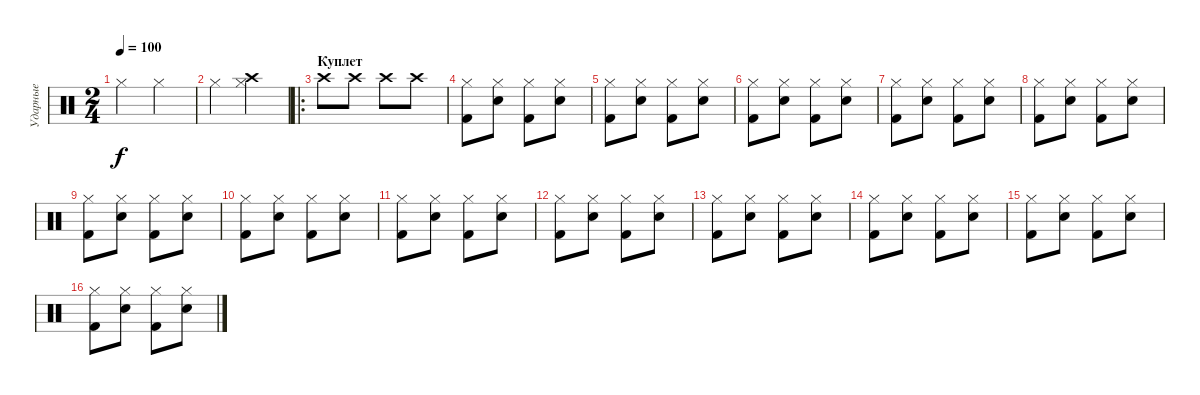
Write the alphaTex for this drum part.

\track ("Ударные" "Ударные") {instrument percussion}
\staff {score}
\articulation defaults
\ts (2 4)
\tempo 100
\clef neutral
\ks c "Hi-Hat (closed)".4{dy f} "Hi-Hat (closed)".4
|
"Hi-Hat (closed)".4 ("Hi-Hat (closed)" "Crash high (hit)").4 |
\ro
\section ("" "Куплет")
"Crash high (hit)".8 "Crash high (hit)".8 "Crash high (hit)".8 "Crash high (hit)".8 |
("Hi-Hat (closed)" "Kick (hit) 2").8 ("Hi-Hat (closed)" "Electric Snare (hit)").8 ("Hi-Hat (closed)" "Kick (hit) 2").8 ("Hi-Hat (closed)" "Electric Snare (hit)").8 |
("Hi-Hat (closed)" "Kick (hit) 2").8 ("Hi-Hat (closed)" "Electric Snare (hit)").8 ("Hi-Hat (closed)" "Kick (hit) 2").8 ("Hi-Hat (closed)" "Electric Snare (hit)").8 |
("Hi-Hat (closed)" "Kick (hit) 2").8 ("Hi-Hat (closed)" "Electric Snare (hit)").8 ("Hi-Hat (closed)" "Kick (hit) 2").8 ("Hi-Hat (closed)" "Electric Snare (hit)").8 |
("Hi-Hat (closed)" "Kick (hit) 2").8 ("Hi-Hat (closed)" "Electric Snare (hit)").8 ("Hi-Hat (closed)" "Kick (hit) 2").8 ("Hi-Hat (closed)" "Electric Snare (hit)").8 |
("Hi-Hat (closed)" "Kick (hit) 2").8 ("Hi-Hat (closed)" "Electric Snare (hit)").8 ("Hi-Hat (closed)" "Kick (hit) 2").8 ("Hi-Hat (closed)" "Electric Snare (hit)").8 |
("Hi-Hat (closed)" "Kick (hit) 2").8 ("Hi-Hat (closed)" "Electric Snare (hit)").8 ("Hi-Hat (closed)" "Kick (hit) 2").8 ("Hi-Hat (closed)" "Electric Snare (hit)").8 |
("Hi-Hat (closed)" "Kick (hit) 2").8 ("Hi-Hat (closed)" "Electric Snare (hit)").8 ("Hi-Hat (closed)" "Kick (hit) 2").8 ("Hi-Hat (closed)" "Electric Snare (hit)").8 |
("Hi-Hat (closed)" "Kick (hit) 2").8 ("Hi-Hat (closed)" "Electric Snare (hit)").8 ("Hi-Hat (closed)" "Kick (hit) 2").8 ("Hi-Hat (closed)" "Electric Snare (hit)").8 |
("Hi-Hat (closed)" "Kick (hit) 2").8 ("Hi-Hat (closed)" "Electric Snare (hit)").8 ("Hi-Hat (closed)" "Kick (hit) 2").8 ("Hi-Hat (closed)" "Electric Snare (hit)").8 |
("Hi-Hat (closed)" "Kick (hit) 2").8 ("Hi-Hat (closed)" "Electric Snare (hit)").8 ("Hi-Hat (closed)" "Kick (hit) 2").8 ("Hi-Hat (closed)" "Electric Snare (hit)").8 |
("Hi-Hat (closed)" "Kick (hit) 2").8 ("Hi-Hat (closed)" "Electric Snare (hit)").8 ("Hi-Hat (closed)" "Kick (hit) 2").8 ("Hi-Hat (closed)" "Electric Snare (hit)").8 |
("Hi-Hat (closed)" "Kick (hit) 2").8 ("Hi-Hat (closed)" "Electric Snare (hit)").8 ("Hi-Hat (closed)" "Kick (hit) 2").8 ("Hi-Hat (closed)" "Electric Snare (hit)").8 |
("Hi-Hat (closed)" "Kick (hit) 2").8 ("Hi-Hat (closed)" "Electric Snare (hit)").8 ("Hi-Hat (closed)" "Kick (hit) 2").8 ("Hi-Hat (closed)" "Electric Snare (hit)").8
